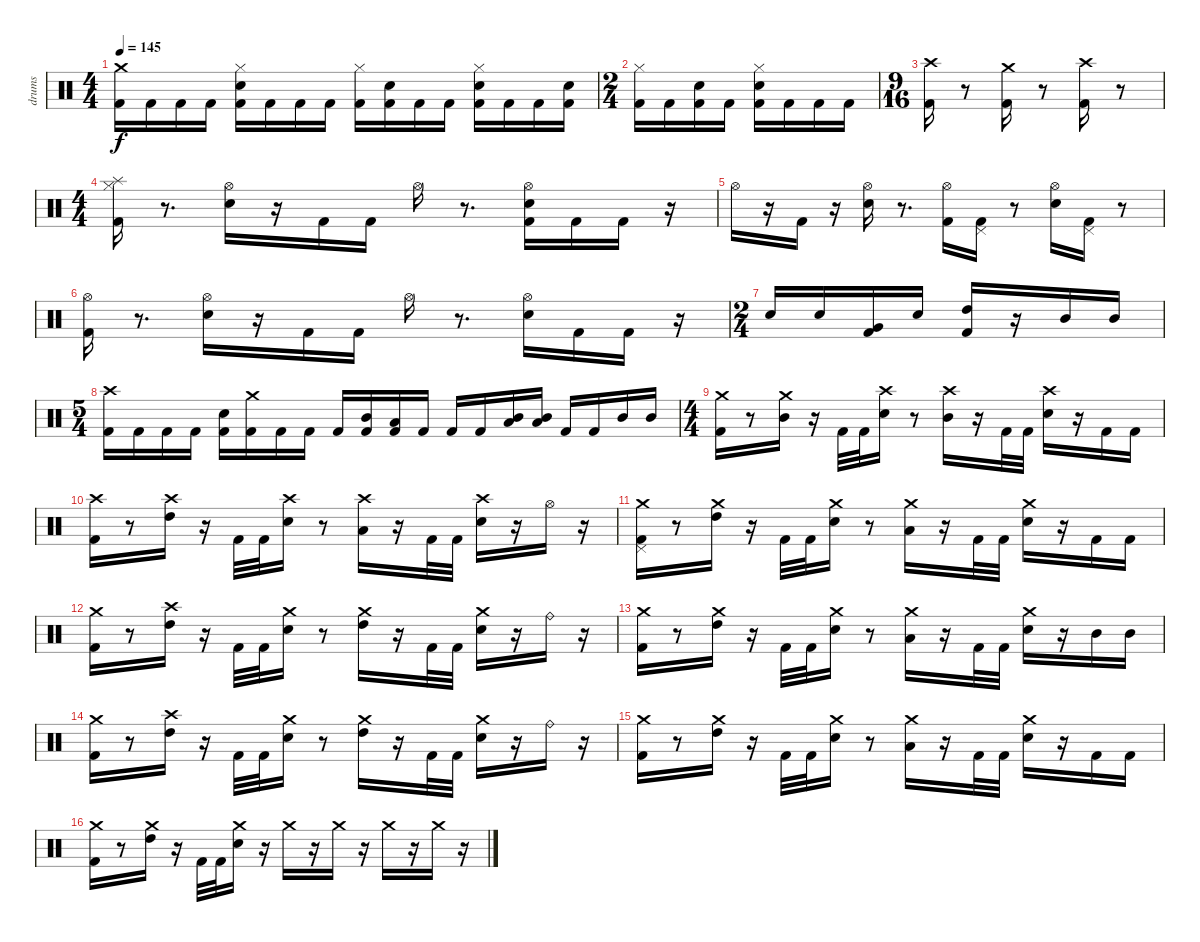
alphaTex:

\track ("drums" "drums") {instrument percussion}
\staff {score}
\articulation defaults
\ts (4 4)
\tempo 145
\clef neutral
\ks c
("Kick (hit) 2" "Crash medium (hit)").16{dy f} "Kick (hit) 2".16 "Kick (hit) 2".16 "Kick (hit) 2".16 ("Kick (hit) 2" "Snare (hit) 2" "Hi-Hat (closed)").16 "Kick (hit) 2".16 "Kick (hit) 2".16 "Kick (hit) 2".16 ("Kick (hit) 2" "Hi-Hat (closed)").16 ("Kick (hit) 2" "Snare (hit) 2").16 "Kick (hit) 2".16 "Kick (hit) 2".16 ("Kick (hit) 2" "Snare (hit) 2" "Hi-Hat (closed)").16 "Kick (hit) 2".16 "Kick (hit) 2".16 ("Kick (hit) 2" "Snare (hit) 2").16 |
\ts (2 4)
("Kick (hit) 2" "Hi-Hat (closed)").16 "Kick (hit) 2".16 ("Kick (hit) 2" "Snare (hit) 2").16 "Kick (hit) 2".16 ("Kick (hit) 2" "Snare (hit) 2" "Hi-Hat (closed)").16 "Kick (hit) 2".16 "Kick (hit) 2".16 "Kick (hit) 2".16 |
\ts (9 16)
("Kick (hit) 2" "Crash high (hit)").16 r.8 ("Kick (hit) 2" "Crash medium (hit)").16 r.8 ("Kick (hit) 2" "Crash high (hit)").16 r.8 |
\ts (4 4)
("Kick (hit) 2" "Hi-Hat (closed)" "Splash (hit)").16 r.8{d} ("Snare (hit) 2" "Hi-Hat (open)").16 r.16 "Kick (hit) 2".16 "Kick (hit) 2".16 "Hi-Hat (open)".16 r.8{d} ("Kick (hit) 2" "Snare (hit) 2" "Hi-Hat (open)").16 "Kick (hit) 2".16 "Kick (hit) 2".16 r.16 |
"Hi-Hat (open)".16 r.16 "Kick (hit) 2".16 r.16 ("Snare (hit) 2" "Hi-Hat (open)").16 r.8{d} ("Kick (hit) 2" "Hi-Hat (open)").16 ("Kick (hit) 2" "Pedal Hi-Hat (hit)").16 r.8 ("Snare (hit) 2" "Hi-Hat (open)").16 ("Kick (hit) 2" "Pedal Hi-Hat (hit)").16 r.8 |
("Kick (hit) 2" "Hi-Hat (open)").16 r.8{d} ("Snare (hit) 2" "Hi-Hat (open)").16 r.16 "Kick (hit) 2".16 "Kick (hit) 2".16 "Hi-Hat (open)".16 r.8{d} ("Snare (hit) 2" "Hi-Hat (open)").16 "Kick (hit) 2".16 "Kick (hit) 2".16 r.16 |
\ts (2 4)
"Snare (hit) 2".16 "Snare (hit) 2".16 ("Kick (hit) 2" "Very Low Tom (hit)").16 "Snare (hit) 2".16 ("Kick (hit) 2" "High Tom (hit)").16 r.16 "Mid Tom (hit)".16 "Mid Tom (hit)".16 |
\ts (5 4)
("Kick (hit) 2" "Crash high (hit)").16 "Kick (hit) 2".16 "Kick (hit) 2".16 "Kick (hit) 2".16 ("Kick (hit) 2" "Snare (hit) 2").16 ("Kick (hit) 2" "Crash medium (hit)").16 "Kick (hit) 2".16 "Kick (hit) 2".16 "Kick (hit) 2".16 ("Kick (hit) 2" "Mid Tom (hit)").16 ("Kick (hit) 2" "Low Tom (hit)").16 "Kick (hit) 2".16 "Kick (hit) 2".16 "Kick (hit) 2".16 ("Low Tom (hit)" "Mid Tom (hit)").16 ("Low Tom (hit)" "Mid Tom (hit)").16 "Kick (hit) 2".16 "Kick (hit) 2".16 "Mid Tom (hit)".16 "Mid Tom (hit)".16 |
\ts (4 4)
("Kick (hit) 2" "Crash medium (hit)").16 r.8 ("Mid Tom (hit)" "Crash medium (hit)").16 r.16 "Kick (hit) 2".32 "Kick (hit) 2".32 ("Snare (hit) 2" "Crash high (hit)").16 r.8 ("Mid Tom (hit)" "Crash high (hit)").16 r.16 "Kick (hit) 2".32 "Kick (hit) 2".32 ("Snare (hit) 2" "Crash high (hit)").16 r.16 "Kick (hit) 2".16 "Kick (hit) 2".16 |
("Kick (hit) 2" "Crash high (hit)").16 r.8 ("High Tom (hit)" "Crash high (hit)").16 r.16 "Kick (hit) 2".32 "Kick (hit) 2".32 ("Snare (hit) 2" "Crash high (hit)").16 r.8 ("Low Tom (hit)" "Crash high (hit)").16 r.16 "Kick (hit) 2".32 "Kick (hit) 2".32 ("Snare (hit) 2" "Crash high (hit)").16 r.16 "Hi-Hat (open)".16 r.16 |
("Kick (hit) 2" "Pedal Hi-Hat (hit)" "Crash medium (hit)").16 r.8 ("High Tom (hit)" "Crash medium (hit)").16 r.16 "Kick (hit) 2".32 "Kick (hit) 2".32 ("Snare (hit) 2" "Crash medium (hit)").16 r.8 ("Low Tom (hit)" "Crash medium (hit)").16 r.16 "Kick (hit) 2".32 "Kick (hit) 2".32 ("Snare (hit) 2" "Crash medium (hit)").16 r.16 "Kick (hit) 2".16 "Kick (hit) 2".16 |
("Kick (hit) 2" "Crash medium (hit)").16 r.8 ("High Tom (hit)" "Crash high (hit)").16 r.16 "Kick (hit) 2".32 "Kick (hit) 2".32 ("Snare (hit) 2" "Crash medium (hit)").16 r.8 ("High Tom (hit)" "Crash medium (hit)").16 r.16 "Kick (hit) 2".32 "Kick (hit) 2".32 ("Snare (hit) 2" "Crash medium (hit)").16 r.16 "Ride (bell)".16 r.16 |
("Kick (hit) 2" "Crash medium (hit)").16 r.8 ("High Tom (hit)" "Crash medium (hit)").16 r.16 "Kick (hit) 2".32 "Kick (hit) 2".32 ("Snare (hit) 2" "Crash medium (hit)").16 r.8 ("Low Tom (hit)" "Crash medium (hit)").16 r.16 "Kick (hit) 2".32 "Kick (hit) 2".32 ("Snare (hit) 2" "Crash medium (hit)").16 r.16 "Mid Tom (hit)".16 "Mid Tom (hit)".16 |
("Kick (hit) 2" "Crash medium (hit)").16 r.8 ("High Tom (hit)" "Crash high (hit)").16 r.16 "Kick (hit) 2".32 "Kick (hit) 2".32 ("Snare (hit) 2" "Crash medium (hit)").16 r.8 ("High Tom (hit)" "Crash medium (hit)").16 r.16 "Kick (hit) 2".32 "Kick (hit) 2".32 ("Snare (hit) 2" "Crash medium (hit)").16 r.16 "Ride (bell)".16 r.16 |
("Kick (hit) 2" "Crash medium (hit)").16 r.8 ("High Tom (hit)" "Crash medium (hit)").16 r.16 "Kick (hit) 2".32 "Kick (hit) 2".32 ("Snare (hit) 2" "Crash medium (hit)").16 r.8 ("Low Tom (hit)" "Crash medium (hit)").16 r.16 "Kick (hit) 2".32 "Kick (hit) 2".32 ("Snare (hit) 2" "Crash medium (hit)").16 r.16 "Kick (hit) 2".16 "Kick (hit) 2".16 |
("Kick (hit) 2" "Crash medium (hit)").16 r.8 ("High Tom (hit)" "Crash medium (hit)").16 r.16 "Kick (hit) 2".32 "Kick (hit) 2".32 ("Snare (hit) 2" "Crash medium (hit)").16 r.16 "Crash medium (hit)".16 r.16 "Crash medium (hit)".16 r.16 "Crash medium (hit)".16 r.16 "Crash medium (hit)".16 r.16
